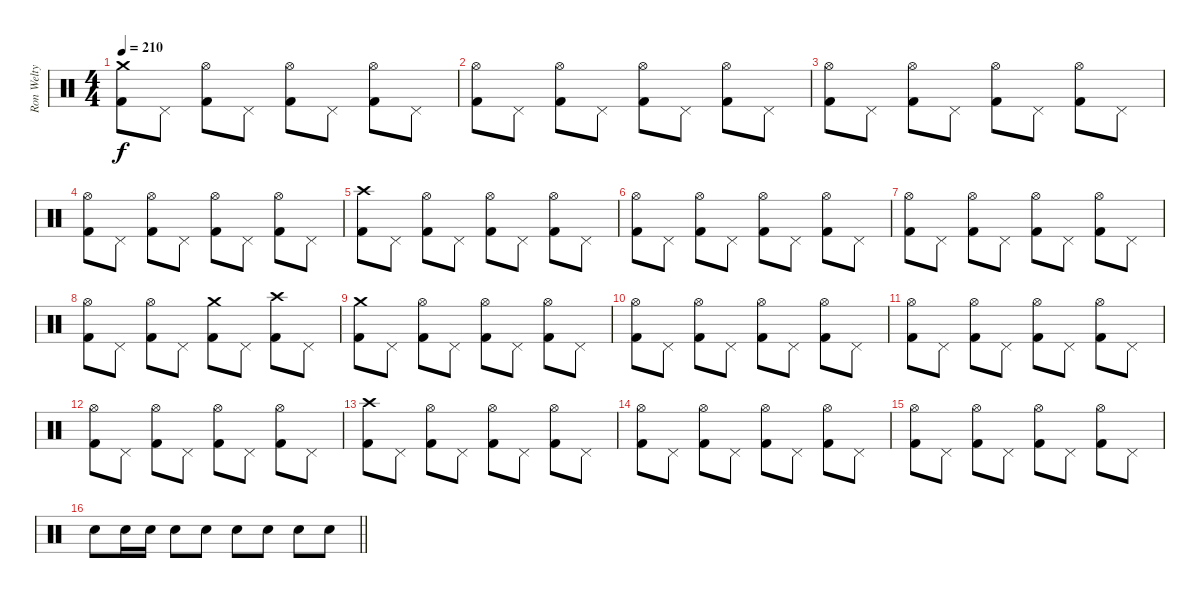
\track ("Ron Welty" "Ron Welty") {instrument percussion}
\staff {score}
\articulation defaults
\ts (4 4)
\tempo 210
\clef neutral
\ks c
("Crash medium (hit)" "Kick (hit) 2").8{dy f} "Pedal Hi-Hat (hit)".8 ("Hi-Hat (open)" "Kick (hit) 2").8 "Pedal Hi-Hat (hit)".8 ("Hi-Hat (open)" "Kick (hit) 2").8 "Pedal Hi-Hat (hit)".8 ("Hi-Hat (open)" "Kick (hit) 2").8 "Pedal Hi-Hat (hit)".8 |
("Hi-Hat (open)" "Kick (hit) 2").8 "Pedal Hi-Hat (hit)".8 ("Hi-Hat (open)" "Kick (hit) 2").8 "Pedal Hi-Hat (hit)".8 ("Hi-Hat (open)" "Kick (hit) 2").8 "Pedal Hi-Hat (hit)".8 ("Hi-Hat (open)" "Kick (hit) 2").8 "Pedal Hi-Hat (hit)".8 |
("Hi-Hat (open)" "Kick (hit) 2").8 "Pedal Hi-Hat (hit)".8 ("Hi-Hat (open)" "Kick (hit) 2").8 "Pedal Hi-Hat (hit)".8 ("Hi-Hat (open)" "Kick (hit) 2").8 "Pedal Hi-Hat (hit)".8 ("Hi-Hat (open)" "Kick (hit) 2").8 "Pedal Hi-Hat (hit)".8 |
("Hi-Hat (open)" "Kick (hit) 2").8 "Pedal Hi-Hat (hit)".8 ("Hi-Hat (open)" "Kick (hit) 2").8 "Pedal Hi-Hat (hit)".8 ("Hi-Hat (open)" "Kick (hit) 2").8 "Pedal Hi-Hat (hit)".8 ("Hi-Hat (open)" "Kick (hit) 2").8 "Pedal Hi-Hat (hit)".8 |
("Crash high (hit)" "Kick (hit) 2").8 "Pedal Hi-Hat (hit)".8 ("Hi-Hat (open)" "Kick (hit) 2").8 "Pedal Hi-Hat (hit)".8 ("Hi-Hat (open)" "Kick (hit) 2").8 "Pedal Hi-Hat (hit)".8 ("Hi-Hat (open)" "Kick (hit) 2").8 "Pedal Hi-Hat (hit)".8 |
("Hi-Hat (open)" "Kick (hit) 2").8 "Pedal Hi-Hat (hit)".8 ("Hi-Hat (open)" "Kick (hit) 2").8 "Pedal Hi-Hat (hit)".8 ("Hi-Hat (open)" "Kick (hit) 2").8 "Pedal Hi-Hat (hit)".8 ("Hi-Hat (open)" "Kick (hit) 2").8 "Pedal Hi-Hat (hit)".8 |
("Hi-Hat (open)" "Kick (hit) 2").8 "Pedal Hi-Hat (hit)".8 ("Hi-Hat (open)" "Kick (hit) 2").8 "Pedal Hi-Hat (hit)".8 ("Hi-Hat (open)" "Kick (hit) 2").8 "Pedal Hi-Hat (hit)".8 ("Hi-Hat (open)" "Kick (hit) 2").8 "Pedal Hi-Hat (hit)".8 |
("Hi-Hat (open)" "Kick (hit) 2").8 "Pedal Hi-Hat (hit)".8 ("Hi-Hat (open)" "Kick (hit) 2").8 "Pedal Hi-Hat (hit)".8 ("Crash medium (hit)" "Kick (hit) 2").8 "Pedal Hi-Hat (hit)".8 ("Crash high (hit)" "Kick (hit) 2").8 "Pedal Hi-Hat (hit)".8 |
("Crash medium (hit)" "Kick (hit) 2").8 "Pedal Hi-Hat (hit)".8 ("Hi-Hat (open)" "Kick (hit) 2").8 "Pedal Hi-Hat (hit)".8 ("Hi-Hat (open)" "Kick (hit) 2").8 "Pedal Hi-Hat (hit)".8 ("Hi-Hat (open)" "Kick (hit) 2").8 "Pedal Hi-Hat (hit)".8 |
("Hi-Hat (open)" "Kick (hit) 2").8 "Pedal Hi-Hat (hit)".8 ("Hi-Hat (open)" "Kick (hit) 2").8 "Pedal Hi-Hat (hit)".8 ("Hi-Hat (open)" "Kick (hit) 2").8 "Pedal Hi-Hat (hit)".8 ("Hi-Hat (open)" "Kick (hit) 2").8 "Pedal Hi-Hat (hit)".8 |
("Hi-Hat (open)" "Kick (hit) 2").8 "Pedal Hi-Hat (hit)".8 ("Hi-Hat (open)" "Kick (hit) 2").8 "Pedal Hi-Hat (hit)".8 ("Hi-Hat (open)" "Kick (hit) 2").8 "Pedal Hi-Hat (hit)".8 ("Hi-Hat (open)" "Kick (hit) 2").8 "Pedal Hi-Hat (hit)".8 |
("Hi-Hat (open)" "Kick (hit) 2").8 "Pedal Hi-Hat (hit)".8 ("Hi-Hat (open)" "Kick (hit) 2").8 "Pedal Hi-Hat (hit)".8 ("Hi-Hat (open)" "Kick (hit) 2").8 "Pedal Hi-Hat (hit)".8 ("Hi-Hat (open)" "Kick (hit) 2").8 "Pedal Hi-Hat (hit)".8 |
("Crash high (hit)" "Kick (hit) 2").8 "Pedal Hi-Hat (hit)".8 ("Hi-Hat (open)" "Kick (hit) 2").8 "Pedal Hi-Hat (hit)".8 ("Hi-Hat (open)" "Kick (hit) 2").8 "Pedal Hi-Hat (hit)".8 ("Hi-Hat (open)" "Kick (hit) 2").8 "Pedal Hi-Hat (hit)".8 |
("Hi-Hat (open)" "Kick (hit) 2").8 "Pedal Hi-Hat (hit)".8 ("Hi-Hat (open)" "Kick (hit) 2").8 "Pedal Hi-Hat (hit)".8 ("Hi-Hat (open)" "Kick (hit) 2").8 "Pedal Hi-Hat (hit)".8 ("Hi-Hat (open)" "Kick (hit) 2").8 "Pedal Hi-Hat (hit)".8 |
("Hi-Hat (open)" "Kick (hit) 2").8 "Pedal Hi-Hat (hit)".8 ("Hi-Hat (open)" "Kick (hit) 2").8 "Pedal Hi-Hat (hit)".8 ("Hi-Hat (open)" "Kick (hit) 2").8 "Pedal Hi-Hat (hit)".8 ("Hi-Hat (open)" "Kick (hit) 2").8 "Pedal Hi-Hat (hit)".8 |
\barLineRight lightlight "Electric Snare (hit)".8 "Electric Snare (hit)".16 "Electric Snare (hit)".16 "Electric Snare (hit)".8 "Electric Snare (hit)".8 "Electric Snare (hit)".8 "Electric Snare (hit)".8 "Electric Snare (hit)".8 "Electric Snare (hit)".8
